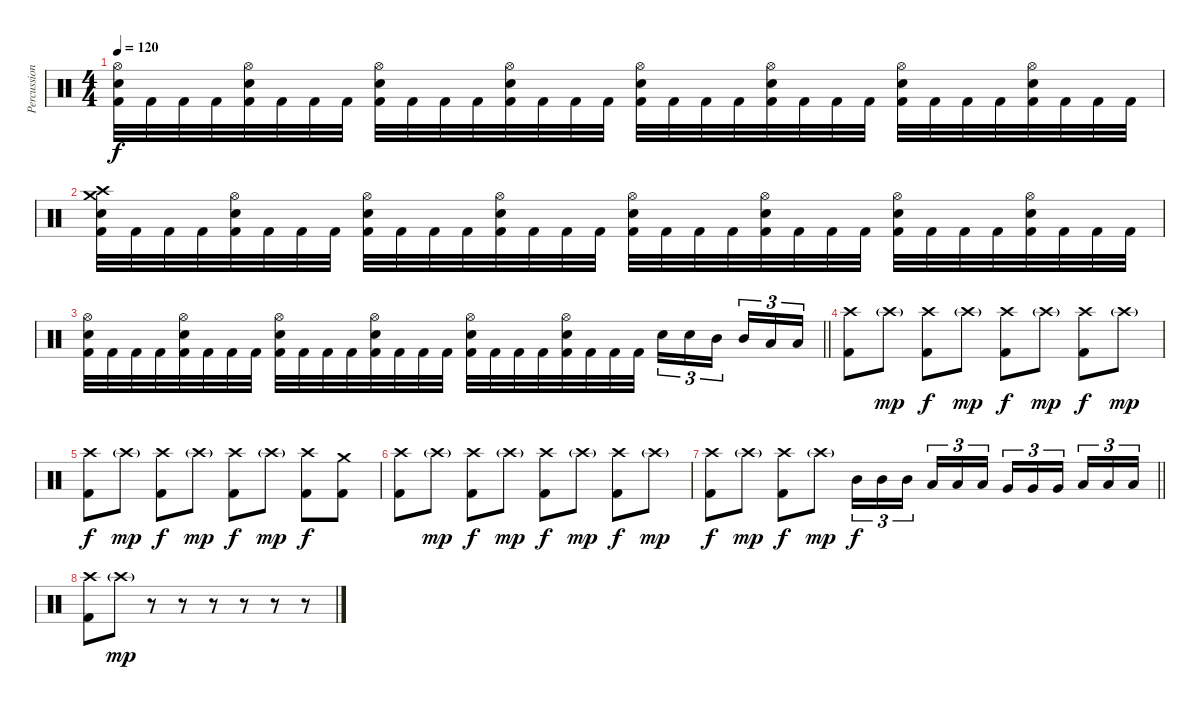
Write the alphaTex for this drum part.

\track ("Percussion" "Percussion") {instrument percussion}
\staff {score}
\articulation defaults
\ts (4 4)
\tempo 120
\clef neutral
\ks c
("Hi-Hat (open)" "Electric Snare (hit)" "Kick (hit) 2").32{dy f} "Kick (hit) 2".32 "Kick (hit) 2".32 "Kick (hit) 2".32 ("Hi-Hat (open)" "Electric Snare (hit)" "Kick (hit) 2").32 "Kick (hit) 2".32 "Kick (hit) 2".32 "Kick (hit) 2".32 ("Hi-Hat (open)" "Electric Snare (hit)" "Kick (hit) 2").32 "Kick (hit) 2".32 "Kick (hit) 2".32 "Kick (hit) 2".32 ("Hi-Hat (open)" "Electric Snare (hit)" "Kick (hit) 2").32 "Kick (hit) 2".32 "Kick (hit) 2".32 "Kick (hit) 2".32 ("Hi-Hat (open)" "Electric Snare (hit)" "Kick (hit) 2").32 "Kick (hit) 2".32 "Kick (hit) 2".32 "Kick (hit) 2".32 ("Hi-Hat (open)" "Electric Snare (hit)" "Kick (hit) 2").32 "Kick (hit) 2".32 "Kick (hit) 2".32 "Kick (hit) 2".32 ("Hi-Hat (open)" "Electric Snare (hit)" "Kick (hit) 2").32 "Kick (hit) 2".32 "Kick (hit) 2".32 "Kick (hit) 2".32 ("Hi-Hat (open)" "Electric Snare (hit)" "Kick (hit) 2").32 "Kick (hit) 2".32 "Kick (hit) 2".32 "Kick (hit) 2".32 |
("Crash medium (hit)" "Crash high (hit)" "Electric Snare (hit)" "Kick (hit) 2").32 "Kick (hit) 2".32 "Kick (hit) 2".32 "Kick (hit) 2".32 ("Hi-Hat (open)" "Electric Snare (hit)" "Kick (hit) 2").32 "Kick (hit) 2".32 "Kick (hit) 2".32 "Kick (hit) 2".32 ("Hi-Hat (open)" "Electric Snare (hit)" "Kick (hit) 2").32 "Kick (hit) 2".32 "Kick (hit) 2".32 "Kick (hit) 2".32 ("Hi-Hat (open)" "Electric Snare (hit)" "Kick (hit) 2").32 "Kick (hit) 2".32 "Kick (hit) 2".32 "Kick (hit) 2".32 ("Hi-Hat (open)" "Electric Snare (hit)" "Kick (hit) 2").32 "Kick (hit) 2".32 "Kick (hit) 2".32 "Kick (hit) 2".32 ("Hi-Hat (open)" "Electric Snare (hit)" "Kick (hit) 2").32 "Kick (hit) 2".32 "Kick (hit) 2".32 "Kick (hit) 2".32 ("Hi-Hat (open)" "Electric Snare (hit)" "Kick (hit) 2").32 "Kick (hit) 2".32 "Kick (hit) 2".32 "Kick (hit) 2".32 ("Hi-Hat (open)" "Electric Snare (hit)" "Kick (hit) 2").32 "Kick (hit) 2".32 "Kick (hit) 2".32 "Kick (hit) 2".32 |
\barLineRight lightlight
("Hi-Hat (open)" "Electric Snare (hit)" "Kick (hit) 2").32 "Kick (hit) 2".32 "Kick (hit) 2".32 "Kick (hit) 2".32 ("Hi-Hat (open)" "Electric Snare (hit)" "Kick (hit) 2").32 "Kick (hit) 2".32 "Kick (hit) 2".32 "Kick (hit) 2".32 ("Hi-Hat (open)" "Electric Snare (hit)" "Kick (hit) 2").32 "Kick (hit) 2".32 "Kick (hit) 2".32 "Kick (hit) 2".32 ("Hi-Hat (open)" "Electric Snare (hit)" "Kick (hit) 2").32 "Kick (hit) 2".32 "Kick (hit) 2".32 "Kick (hit) 2".32 ("Hi-Hat (open)" "Electric Snare (hit)" "Kick (hit) 2").32 "Kick (hit) 2".32 "Kick (hit) 2".32 "Kick (hit) 2".32 ("Hi-Hat (open)" "Electric Snare (hit)" "Kick (hit) 2").32 "Kick (hit) 2".32 "Kick (hit) 2".32 "Kick (hit) 2".32 "Electric Snare (hit)".16{tu (3 2)} "Electric Snare (hit)".16{tu (3 2)} "Mid Tom (hit)".16{tu (3 2) beam splitsecondary} "Mid Tom (hit)".16{tu (3 2)} "Low Tom (hit)".16{tu (3 2)} "Low Tom (hit)".16{tu (3 2)} |
("Crash high (hit)" "Kick (hit) 2").8 "Crash high (hit)"{g}.8{dy mp} ("Crash high (hit)" "Kick (hit) 2").8{dy f} "Crash high (hit)"{g}.8{dy mp} ("Crash high (hit)" "Kick (hit) 2").8{dy f} "Crash high (hit)"{g}.8{dy mp} ("Crash high (hit)" "Kick (hit) 2").8{dy f} "Crash high (hit)"{g}.8{dy mp} |
("Crash high (hit)" "Kick (hit) 2").8{dy f} "Crash high (hit)"{g}.8{dy mp} ("Crash high (hit)" "Kick (hit) 2").8{dy f} "Crash high (hit)"{g}.8{dy mp} ("Crash high (hit)" "Kick (hit) 2").8{dy f} "Crash high (hit)"{g}.8{dy mp} ("Crash high (hit)" "Kick (hit) 2").8{dy f} ("Crash medium (hit)" "Kick (hit) 2").8 |
("Crash high (hit)" "Kick (hit) 2").8 "Crash high (hit)"{g}.8{dy mp} ("Crash high (hit)" "Kick (hit) 2").8{dy f} "Crash high (hit)"{g}.8{dy mp} ("Crash high (hit)" "Kick (hit) 2").8{dy f} "Crash high (hit)"{g}.8{dy mp} ("Crash high (hit)" "Kick (hit) 2").8{dy f} "Crash high (hit)"{g}.8{dy mp} |
\barLineRight lightlight
("Crash high (hit)" "Kick (hit) 2").8{dy f} "Crash high (hit)"{g}.8{dy mp} ("Crash high (hit)" "Kick (hit) 2").8{dy f} "Crash high (hit)"{g}.8{dy mp} "Mid Tom (hit)".16{tu (3 2) dy f} "Mid Tom (hit)".16{tu (3 2)} "Mid Tom (hit)".16{tu (3 2) beam splitsecondary} "Low Tom (hit)".16{tu (3 2)} "Low Tom (hit)".16{tu (3 2)} "Low Tom (hit)".16{tu (3 2)} "Very Low Tom (hit)".16{tu (3 2)} "Very Low Tom (hit)".16{tu (3 2)} "Very Low Tom (hit)".16{tu (3 2) beam splitsecondary} "Low Floor Tom (hit)".16{tu (3 2)} "Low Floor Tom (hit)".16{tu (3 2)} "Low Floor Tom (hit)".16{tu (3 2)} |
("Crash high (hit)" "Kick (hit) 2").8 "Crash high (hit)"{g}.8{dy mp} r.8 r.8 r.8 r.8 r.8 r.8
